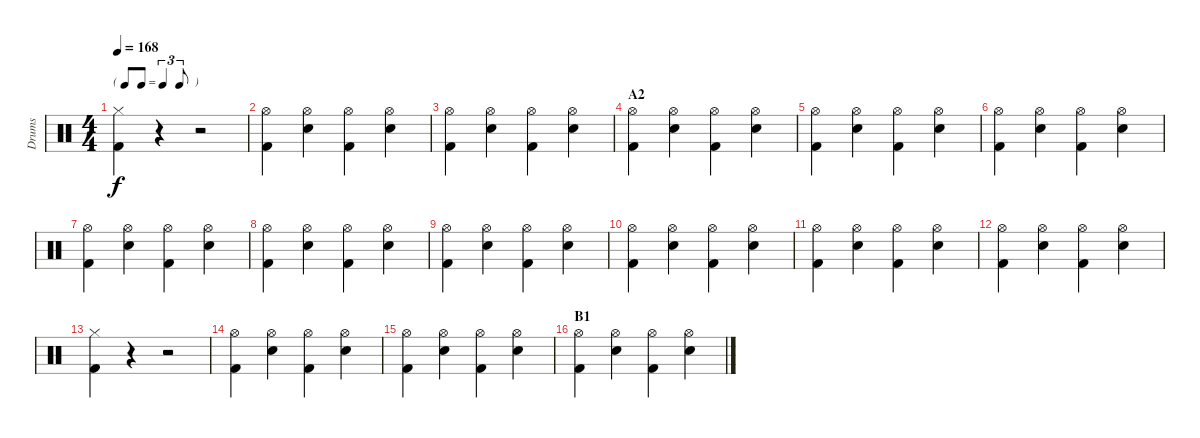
\track ("Drums" "Drums") {instrument percussion}
\staff {score}
\articulation defaults
\ts (4 4)
\tf triplet8th
\tempo 168
\clef neutral
\ks c
("Hi-Hat (closed)" "Kick (hit) 2").4{dy f} r.4 r.2 |
("Hi-Hat (open)" "Kick (hit) 2").4 ("Hi-Hat (open)" "Snare (hit) 2").4 ("Hi-Hat (open)" "Kick (hit) 2").4 ("Hi-Hat (open)" "Snare (hit) 2").4 |
("Hi-Hat (open)" "Kick (hit) 2").4 ("Hi-Hat (open)" "Snare (hit) 2").4 ("Hi-Hat (open)" "Kick (hit) 2").4 ("Hi-Hat (open)" "Snare (hit) 2").4 |
\section ("" "A2")
("Hi-Hat (open)" "Kick (hit) 2").4 ("Hi-Hat (open)" "Snare (hit) 2").4 ("Hi-Hat (open)" "Kick (hit) 2").4 ("Hi-Hat (open)" "Snare (hit) 2").4 |
("Hi-Hat (open)" "Kick (hit) 2").4 ("Hi-Hat (open)" "Snare (hit) 2").4 ("Hi-Hat (open)" "Kick (hit) 2").4 ("Hi-Hat (open)" "Snare (hit) 2").4 |
("Hi-Hat (open)" "Kick (hit) 2").4 ("Hi-Hat (open)" "Snare (hit) 2").4 ("Hi-Hat (open)" "Kick (hit) 2").4 ("Hi-Hat (open)" "Snare (hit) 2").4 |
("Hi-Hat (open)" "Kick (hit) 2").4 ("Hi-Hat (open)" "Snare (hit) 2").4 ("Hi-Hat (open)" "Kick (hit) 2").4 ("Hi-Hat (open)" "Snare (hit) 2").4 |
("Hi-Hat (open)" "Kick (hit) 2").4 ("Hi-Hat (open)" "Snare (hit) 2").4 ("Hi-Hat (open)" "Kick (hit) 2").4 ("Hi-Hat (open)" "Snare (hit) 2").4 |
("Hi-Hat (open)" "Kick (hit) 2").4 ("Hi-Hat (open)" "Snare (hit) 2").4 ("Hi-Hat (open)" "Kick (hit) 2").4 ("Hi-Hat (open)" "Snare (hit) 2").4 |
("Hi-Hat (open)" "Kick (hit) 2").4 ("Hi-Hat (open)" "Snare (hit) 2").4 ("Hi-Hat (open)" "Kick (hit) 2").4 ("Hi-Hat (open)" "Snare (hit) 2").4 |
("Hi-Hat (open)" "Kick (hit) 2").4 ("Hi-Hat (open)" "Snare (hit) 2").4 ("Hi-Hat (open)" "Kick (hit) 2").4 ("Hi-Hat (open)" "Snare (hit) 2").4 |
("Hi-Hat (open)" "Kick (hit) 2").4 ("Hi-Hat (open)" "Snare (hit) 2").4 ("Hi-Hat (open)" "Kick (hit) 2").4 ("Hi-Hat (open)" "Snare (hit) 2").4 |
("Hi-Hat (closed)" "Kick (hit) 2").4 r.4 r.2 |
("Hi-Hat (open)" "Kick (hit) 2").4 ("Hi-Hat (open)" "Snare (hit) 2").4 ("Hi-Hat (open)" "Kick (hit) 2").4 ("Hi-Hat (open)" "Snare (hit) 2").4 |
("Hi-Hat (open)" "Kick (hit) 2").4 ("Hi-Hat (open)" "Snare (hit) 2").4 ("Hi-Hat (open)" "Kick (hit) 2").4 ("Hi-Hat (open)" "Snare (hit) 2").4 |
\section ("" "B1")
("Hi-Hat (open)" "Kick (hit) 2").4 ("Hi-Hat (open)" "Snare (hit) 2").4 ("Hi-Hat (open)" "Kick (hit) 2").4 ("Hi-Hat (open)" "Snare (hit) 2").4
